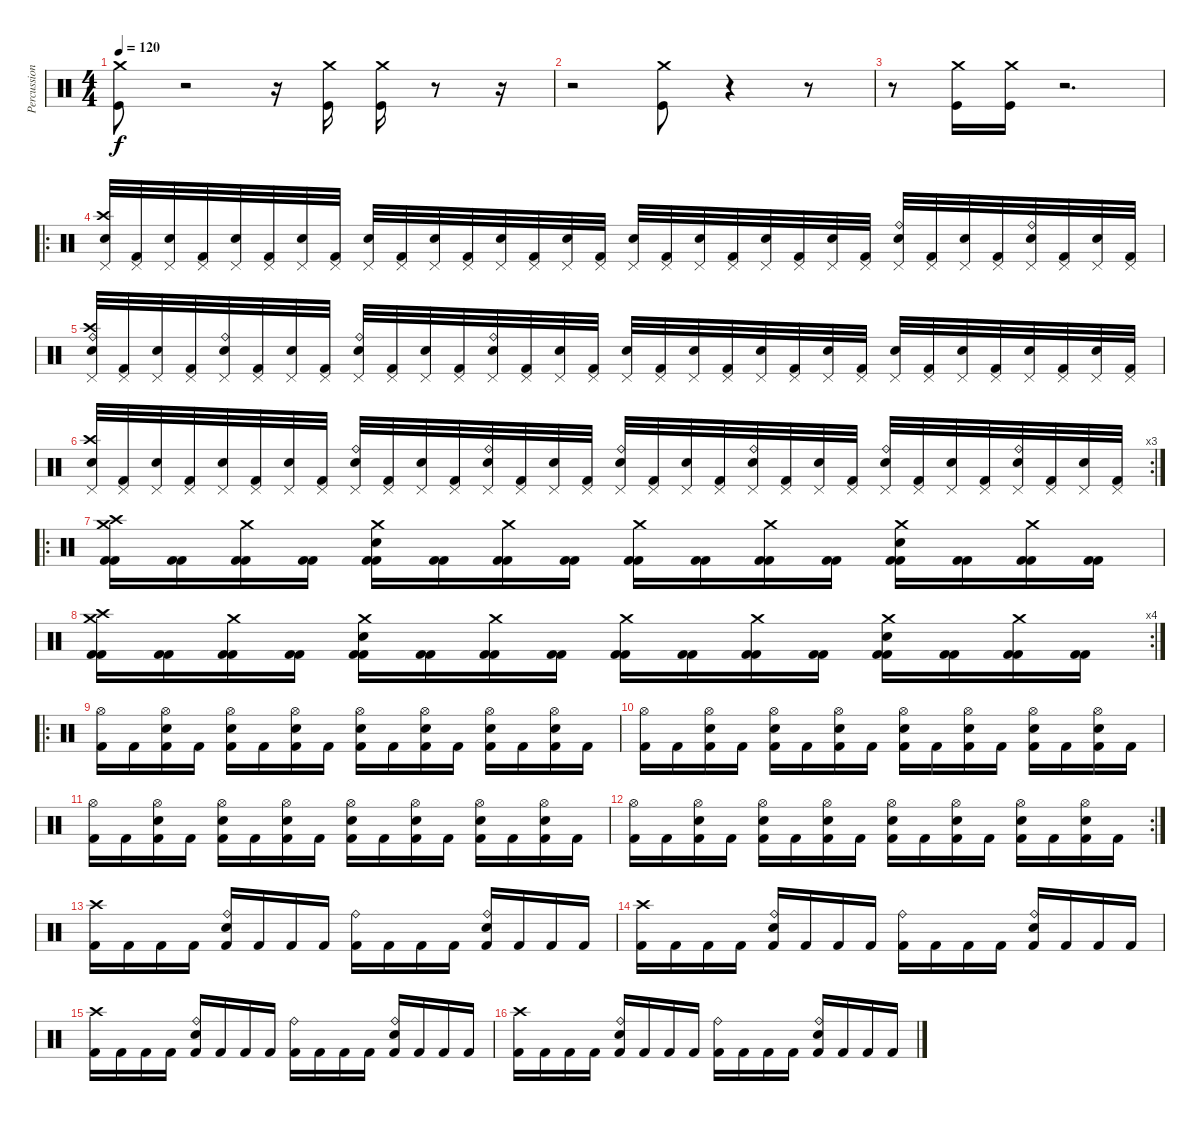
\track ("Percussions" "Percussion") {instrument percussion}
\staff {score}
\articulation defaults
\ts (4 4)
\tempo 120
\clef neutral
\ks c
("Crash medium (hit)" "Kick (hit)").8{dy f} r.2 r.16 ("Crash medium (hit)" "Kick (hit)").16 ("Crash medium (hit)" "Kick (hit)").16 r.8 r.16 |
r.2 ("Crash medium (hit)" "Kick (hit)").8 r.4 r.8 |
r.8 ("Crash medium (hit)" "Kick (hit)").16 ("Crash medium (hit)" "Kick (hit)").16 r.2{d} |
\ro
("Pedal Hi-Hat (hit)" "Crash high (hit)" "Electric Snare (hit)").32{volume 16} ("Pedal Hi-Hat (hit)" "Kick (hit) 2").32 ("Pedal Hi-Hat (hit)" "Electric Snare (hit)").32 ("Pedal Hi-Hat (hit)" "Kick (hit) 2").32 ("Pedal Hi-Hat (hit)" "Electric Snare (hit)").32 ("Pedal Hi-Hat (hit)" "Kick (hit) 2").32 ("Pedal Hi-Hat (hit)" "Electric Snare (hit)").32 ("Pedal Hi-Hat (hit)" "Kick (hit) 2").32 ("Pedal Hi-Hat (hit)" "Electric Snare (hit)").32 ("Pedal Hi-Hat (hit)" "Kick (hit) 2").32 ("Pedal Hi-Hat (hit)" "Electric Snare (hit)").32 ("Pedal Hi-Hat (hit)" "Kick (hit) 2").32 ("Pedal Hi-Hat (hit)" "Electric Snare (hit)").32 ("Pedal Hi-Hat (hit)" "Kick (hit) 2").32 ("Pedal Hi-Hat (hit)" "Electric Snare (hit)").32 ("Pedal Hi-Hat (hit)" "Kick (hit) 2").32 ("Pedal Hi-Hat (hit)" "Electric Snare (hit)").32 ("Pedal Hi-Hat (hit)" "Kick (hit) 2").32 ("Pedal Hi-Hat (hit)" "Electric Snare (hit)").32 ("Pedal Hi-Hat (hit)" "Kick (hit) 2").32 ("Pedal Hi-Hat (hit)" "Electric Snare (hit)").32 ("Pedal Hi-Hat (hit)" "Kick (hit) 2").32 ("Pedal Hi-Hat (hit)" "Electric Snare (hit)").32 ("Pedal Hi-Hat (hit)" "Kick (hit) 2").32 ("Ride (bell)" "Pedal Hi-Hat (hit)" "Electric Snare (hit)").32 ("Pedal Hi-Hat (hit)" "Kick (hit) 2").32 ("Pedal Hi-Hat (hit)" "Electric Snare (hit)").32 ("Pedal Hi-Hat (hit)" "Kick (hit) 2").32 ("Ride (bell)" "Pedal Hi-Hat (hit)" "Electric Snare (hit)").32 ("Pedal Hi-Hat (hit)" "Kick (hit) 2").32 ("Pedal Hi-Hat (hit)" "Electric Snare (hit)").32 ("Pedal Hi-Hat (hit)" "Kick (hit) 2").32 |
("Ride (bell)" "Pedal Hi-Hat (hit)" "Crash high (hit)" "Electric Snare (hit)").32 ("Pedal Hi-Hat (hit)" "Kick (hit) 2").32 ("Pedal Hi-Hat (hit)" "Electric Snare (hit)").32 ("Pedal Hi-Hat (hit)" "Kick (hit) 2").32 ("Ride (bell)" "Pedal Hi-Hat (hit)" "Electric Snare (hit)").32 ("Pedal Hi-Hat (hit)" "Kick (hit) 2").32 ("Pedal Hi-Hat (hit)" "Electric Snare (hit)").32 ("Pedal Hi-Hat (hit)" "Kick (hit) 2").32 ("Ride (bell)" "Pedal Hi-Hat (hit)" "Electric Snare (hit)").32 ("Pedal Hi-Hat (hit)" "Kick (hit) 2").32 ("Pedal Hi-Hat (hit)" "Electric Snare (hit)").32 ("Pedal Hi-Hat (hit)" "Kick (hit) 2").32 ("Ride (bell)" "Pedal Hi-Hat (hit)" "Electric Snare (hit)").32 ("Pedal Hi-Hat (hit)" "Kick (hit) 2").32 ("Pedal Hi-Hat (hit)" "Electric Snare (hit)").32 ("Pedal Hi-Hat (hit)" "Kick (hit) 2").32 ("Pedal Hi-Hat (hit)" "Electric Snare (hit)").32 ("Pedal Hi-Hat (hit)" "Kick (hit) 2").32 ("Pedal Hi-Hat (hit)" "Electric Snare (hit)").32 ("Pedal Hi-Hat (hit)" "Kick (hit) 2").32 ("Pedal Hi-Hat (hit)" "Electric Snare (hit)").32 ("Pedal Hi-Hat (hit)" "Kick (hit) 2").32 ("Pedal Hi-Hat (hit)" "Electric Snare (hit)").32 ("Pedal Hi-Hat (hit)" "Kick (hit) 2").32 ("Pedal Hi-Hat (hit)" "Electric Snare (hit)").32 ("Pedal Hi-Hat (hit)" "Kick (hit) 2").32 ("Pedal Hi-Hat (hit)" "Electric Snare (hit)").32 ("Pedal Hi-Hat (hit)" "Kick (hit) 2").32 ("Pedal Hi-Hat (hit)" "Electric Snare (hit)").32 ("Pedal Hi-Hat (hit)" "Kick (hit) 2").32 ("Pedal Hi-Hat (hit)" "Electric Snare (hit)").32 ("Pedal Hi-Hat (hit)" "Kick (hit) 2").32 |
\rc 3
("Pedal Hi-Hat (hit)" "Crash high (hit)" "Electric Snare (hit)").32 ("Pedal Hi-Hat (hit)" "Kick (hit) 2").32 ("Pedal Hi-Hat (hit)" "Electric Snare (hit)").32 ("Pedal Hi-Hat (hit)" "Kick (hit) 2").32 ("Pedal Hi-Hat (hit)" "Electric Snare (hit)").32 ("Pedal Hi-Hat (hit)" "Kick (hit) 2").32 ("Pedal Hi-Hat (hit)" "Electric Snare (hit)").32 ("Pedal Hi-Hat (hit)" "Kick (hit) 2").32 ("Ride (bell)" "Pedal Hi-Hat (hit)" "Electric Snare (hit)").32 ("Pedal Hi-Hat (hit)" "Kick (hit) 2").32 ("Pedal Hi-Hat (hit)" "Electric Snare (hit)").32 ("Pedal Hi-Hat (hit)" "Kick (hit) 2").32 ("Ride (bell)" "Pedal Hi-Hat (hit)" "Electric Snare (hit)").32 ("Pedal Hi-Hat (hit)" "Kick (hit) 2").32 ("Pedal Hi-Hat (hit)" "Electric Snare (hit)").32 ("Pedal Hi-Hat (hit)" "Kick (hit) 2").32 ("Ride (bell)" "Pedal Hi-Hat (hit)" "Electric Snare (hit)").32 ("Pedal Hi-Hat (hit)" "Kick (hit) 2").32 ("Pedal Hi-Hat (hit)" "Electric Snare (hit)").32 ("Pedal Hi-Hat (hit)" "Kick (hit) 2").32 ("Ride (bell)" "Pedal Hi-Hat (hit)" "Electric Snare (hit)").32 ("Pedal Hi-Hat (hit)" "Kick (hit) 2").32 ("Pedal Hi-Hat (hit)" "Electric Snare (hit)").32 ("Pedal Hi-Hat (hit)" "Kick (hit) 2").32 ("Ride (bell)" "Pedal Hi-Hat (hit)" "Electric Snare (hit)").32 ("Pedal Hi-Hat (hit)" "Kick (hit) 2").32 ("Pedal Hi-Hat (hit)" "Electric Snare (hit)").32 ("Pedal Hi-Hat (hit)" "Kick (hit) 2").32 ("Ride (bell)" "Pedal Hi-Hat (hit)" "Electric Snare (hit)").32 ("Pedal Hi-Hat (hit)" "Kick (hit) 2").32 ("Pedal Hi-Hat (hit)" "Electric Snare (hit)").32 ("Pedal Hi-Hat (hit)" "Kick (hit) 2").32 |
\ro
("Kick (hit) 2" "Crash medium (hit)" "Crash high (hit)" "Kick (hit) 2").16 ("Kick (hit) 2" "Kick (hit) 2").16 ("Kick (hit) 2" "Crash medium (hit)" "Kick (hit) 2").16 ("Kick (hit) 2" "Kick (hit) 2").16 ("Kick (hit) 2" "Crash medium (hit)" "Electric Snare (hit)" "Kick (hit) 2").16 ("Kick (hit) 2" "Kick (hit) 2").16 ("Kick (hit) 2" "Crash medium (hit)" "Kick (hit) 2").16 ("Kick (hit) 2" "Kick (hit) 2").16 ("Kick (hit) 2" "Crash medium (hit)" "Kick (hit) 2").16 ("Kick (hit) 2" "Kick (hit) 2").16 ("Kick (hit) 2" "Crash medium (hit)" "Kick (hit) 2").16 ("Kick (hit) 2" "Kick (hit) 2").16 ("Kick (hit) 2" "Crash medium (hit)" "Electric Snare (hit)" "Kick (hit) 2").16 ("Kick (hit) 2" "Kick (hit) 2").16 ("Kick (hit) 2" "Crash medium (hit)" "Kick (hit) 2").16 ("Kick (hit) 2" "Kick (hit) 2").16 |
\rc 4
("Kick (hit) 2" "Crash medium (hit)" "Crash high (hit)" "Kick (hit) 2").16 ("Kick (hit) 2" "Kick (hit) 2").16 ("Kick (hit) 2" "Crash medium (hit)" "Kick (hit) 2").16 ("Kick (hit) 2" "Kick (hit) 2").16 ("Kick (hit) 2" "Crash medium (hit)" "Electric Snare (hit)" "Kick (hit) 2").16 ("Kick (hit) 2" "Kick (hit) 2").16 ("Kick (hit) 2" "Crash medium (hit)" "Kick (hit) 2").16 ("Kick (hit) 2" "Kick (hit) 2").16 ("Kick (hit) 2" "Crash medium (hit)" "Kick (hit) 2").16 ("Kick (hit) 2" "Kick (hit) 2").16 ("Kick (hit) 2" "Crash medium (hit)" "Kick (hit) 2").16 ("Kick (hit) 2" "Kick (hit) 2").16 ("Kick (hit) 2" "Crash medium (hit)" "Electric Snare (hit)" "Kick (hit) 2").16 ("Kick (hit) 2" "Kick (hit) 2").16 ("Kick (hit) 2" "Crash medium (hit)" "Kick (hit) 2").16 ("Kick (hit) 2" "Kick (hit) 2").16 |
\ro
("Hi-Hat (open)" "Kick (hit) 2").16 "Kick (hit) 2".16 ("Hi-Hat (open)" "Electric Snare (hit)" "Kick (hit) 2").16 "Kick (hit) 2".16 ("Hi-Hat (open)" "Electric Snare (hit)" "Kick (hit) 2").16 "Kick (hit) 2".16 ("Hi-Hat (open)" "Electric Snare (hit)" "Kick (hit) 2").16 "Kick (hit) 2".16 ("Hi-Hat (open)" "Electric Snare (hit)" "Kick (hit) 2").16 "Kick (hit) 2".16 ("Hi-Hat (open)" "Electric Snare (hit)" "Kick (hit) 2").16 "Kick (hit) 2".16 ("Hi-Hat (open)" "Electric Snare (hit)" "Kick (hit) 2").16 "Kick (hit) 2".16 ("Hi-Hat (open)" "Electric Snare (hit)" "Kick (hit) 2").16 "Kick (hit) 2".16 |
("Hi-Hat (open)" "Kick (hit) 2").16 "Kick (hit) 2".16 ("Hi-Hat (open)" "Electric Snare (hit)" "Kick (hit) 2").16 "Kick (hit) 2".16 ("Hi-Hat (open)" "Electric Snare (hit)" "Kick (hit) 2").16 "Kick (hit) 2".16 ("Hi-Hat (open)" "Electric Snare (hit)" "Kick (hit) 2").16 "Kick (hit) 2".16 ("Hi-Hat (open)" "Electric Snare (hit)" "Kick (hit) 2").16 "Kick (hit) 2".16 ("Hi-Hat (open)" "Electric Snare (hit)" "Kick (hit) 2").16 "Kick (hit) 2".16 ("Hi-Hat (open)" "Electric Snare (hit)" "Kick (hit) 2").16 "Kick (hit) 2".16 ("Hi-Hat (open)" "Electric Snare (hit)" "Kick (hit) 2").16 "Kick (hit) 2".16 |
("Hi-Hat (open)" "Kick (hit) 2").16 "Kick (hit) 2".16 ("Hi-Hat (open)" "Electric Snare (hit)" "Kick (hit) 2").16 "Kick (hit) 2".16 ("Hi-Hat (open)" "Electric Snare (hit)" "Kick (hit) 2").16 "Kick (hit) 2".16 ("Hi-Hat (open)" "Electric Snare (hit)" "Kick (hit) 2").16 "Kick (hit) 2".16 ("Hi-Hat (open)" "Electric Snare (hit)" "Kick (hit) 2").16 "Kick (hit) 2".16 ("Hi-Hat (open)" "Electric Snare (hit)" "Kick (hit) 2").16 "Kick (hit) 2".16 ("Hi-Hat (open)" "Electric Snare (hit)" "Kick (hit) 2").16 "Kick (hit) 2".16 ("Hi-Hat (open)" "Electric Snare (hit)" "Kick (hit) 2").16 "Kick (hit) 2".16 |
\rc 2
("Hi-Hat (open)" "Kick (hit) 2").16 "Kick (hit) 2".16 ("Hi-Hat (open)" "Electric Snare (hit)" "Kick (hit) 2").16 "Kick (hit) 2".16 ("Hi-Hat (open)" "Electric Snare (hit)" "Kick (hit) 2").16 "Kick (hit) 2".16 ("Hi-Hat (open)" "Electric Snare (hit)" "Kick (hit) 2").16 "Kick (hit) 2".16 ("Hi-Hat (open)" "Electric Snare (hit)" "Kick (hit) 2").16 "Kick (hit) 2".16 ("Hi-Hat (open)" "Electric Snare (hit)" "Kick (hit) 2").16 "Kick (hit) 2".16 ("Hi-Hat (open)" "Electric Snare (hit)" "Kick (hit) 2").16 "Kick (hit) 2".16 ("Hi-Hat (open)" "Electric Snare (hit)" "Kick (hit) 2").16 "Kick (hit) 2".16 |
("Crash high (hit)" "Kick (hit) 2").16 "Kick (hit) 2".16 "Kick (hit) 2".16 "Kick (hit) 2".16 ("Ride (bell)" "Snare (hit) 2" "Kick (hit) 2").16 "Kick (hit) 2".16 "Kick (hit) 2".16 "Kick (hit) 2".16 ("Ride (bell)" "Kick (hit) 2").16 "Kick (hit) 2".16 "Kick (hit) 2".16 "Kick (hit) 2".16 ("Ride (bell)" "Snare (hit) 2" "Kick (hit) 2").16 "Kick (hit) 2".16 "Kick (hit) 2".16 "Kick (hit) 2".16 |
("Crash high (hit)" "Kick (hit) 2").16 "Kick (hit) 2".16 "Kick (hit) 2".16 "Kick (hit) 2".16 ("Ride (bell)" "Snare (hit) 2" "Kick (hit) 2").16 "Kick (hit) 2".16 "Kick (hit) 2".16 "Kick (hit) 2".16 ("Ride (bell)" "Kick (hit) 2").16 "Kick (hit) 2".16 "Kick (hit) 2".16 "Kick (hit) 2".16 ("Ride (bell)" "Snare (hit) 2" "Kick (hit) 2").16 "Kick (hit) 2".16 "Kick (hit) 2".16 "Kick (hit) 2".16 |
("Crash high (hit)" "Kick (hit) 2").16 "Kick (hit) 2".16 "Kick (hit) 2".16 "Kick (hit) 2".16 ("Ride (bell)" "Snare (hit) 2" "Kick (hit) 2").16 "Kick (hit) 2".16 "Kick (hit) 2".16 "Kick (hit) 2".16 ("Ride (bell)" "Kick (hit) 2").16 "Kick (hit) 2".16 "Kick (hit) 2".16 "Kick (hit) 2".16 ("Ride (bell)" "Snare (hit) 2" "Kick (hit) 2").16 "Kick (hit) 2".16 "Kick (hit) 2".16 "Kick (hit) 2".16 |
("Crash high (hit)" "Kick (hit) 2").16 "Kick (hit) 2".16 "Kick (hit) 2".16 "Kick (hit) 2".16 ("Ride (bell)" "Snare (hit) 2" "Kick (hit) 2").16 "Kick (hit) 2".16 "Kick (hit) 2".16 "Kick (hit) 2".16 ("Ride (bell)" "Kick (hit) 2").16 "Kick (hit) 2".16 "Kick (hit) 2".16 "Kick (hit) 2".16 ("Ride (bell)" "Snare (hit) 2" "Kick (hit) 2").16 "Kick (hit) 2".16 "Kick (hit) 2".16 "Kick (hit) 2".16
